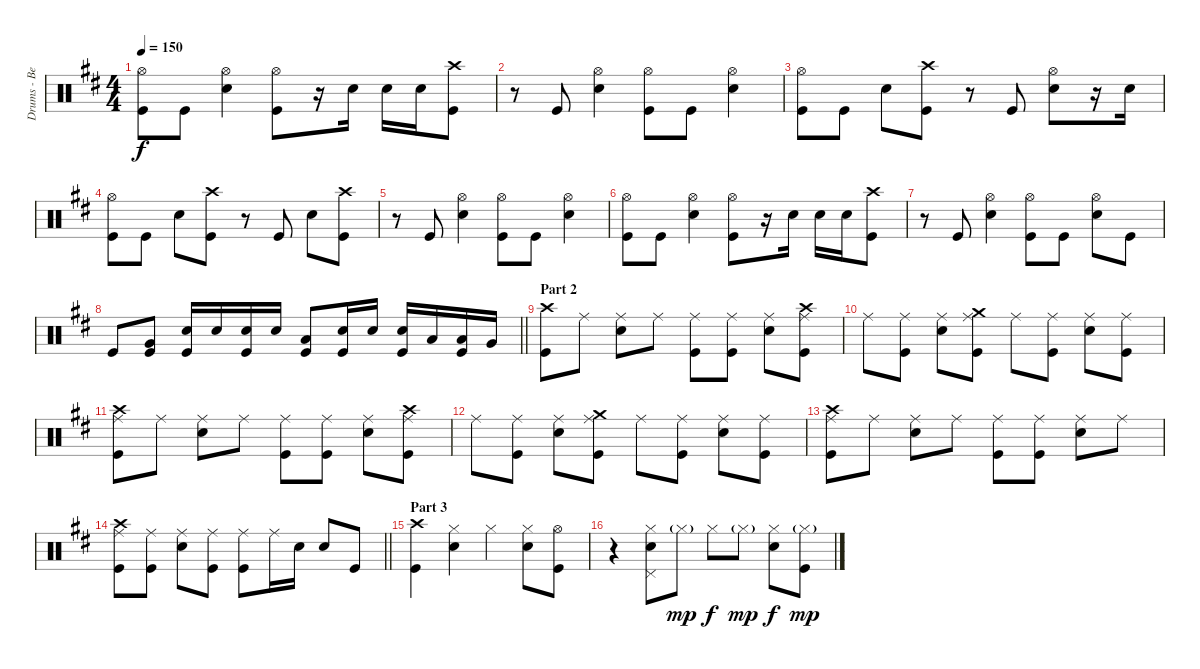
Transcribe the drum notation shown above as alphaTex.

\track ("Drums - Ben Johnston" "Drums - Be") {instrument percussion}
\staff {score}
\articulation defaults
\ts (4 4)
\tempo 150
\clef neutral
\ks d
("Hi-Hat (open)" "Kick (hit)").8{dy f} "Kick (hit)".8 ("Hi-Hat (open)" "Snare (hit) 2").4 ("Hi-Hat (open)" "Kick (hit)").8 r.16 "Snare (hit) 2".16 "Snare (hit) 2".16 "Snare (hit) 2".16 ("Crash high (hit)" "Kick (hit)").8 |
r.8 "Kick (hit)".8 ("Hi-Hat (open)" "Snare (hit) 2").4 ("Hi-Hat (open)" "Kick (hit)").8 "Kick (hit)".8 ("Hi-Hat (open)" "Snare (hit) 2").4 |
("Hi-Hat (open)" "Kick (hit)").8 "Kick (hit)".8 "Snare (hit) 2".8 ("Crash high (hit)" "Kick (hit)").8 r.8 "Kick (hit)".8 ("Hi-Hat (open)" "Snare (hit) 2").8 r.16 "Snare (hit) 2".16 |
("Hi-Hat (open)" "Kick (hit)").8 "Kick (hit)".8 "Snare (hit) 2".8 ("Crash high (hit)" "Kick (hit)").8 r.8 "Kick (hit)".8 "Snare (hit) 2".8 ("Crash high (hit)" "Kick (hit)").8 |
r.8 "Kick (hit)".8 ("Hi-Hat (open)" "Snare (hit) 2").4 ("Hi-Hat (open)" "Kick (hit)").8 "Kick (hit)".8 ("Hi-Hat (open)" "Snare (hit) 2").4 |
("Hi-Hat (open)" "Kick (hit)").8 "Kick (hit)".8 ("Hi-Hat (open)" "Snare (hit) 2").4 ("Hi-Hat (open)" "Kick (hit)").8 r.16 "Snare (hit) 2".16 "Snare (hit) 2".16 "Snare (hit) 2".16 ("Crash high (hit)" "Kick (hit)").8 |
r.8 "Kick (hit)".8 ("Hi-Hat (open)" "Snare (hit) 2").4 ("Hi-Hat (open)" "Kick (hit)").8 "Kick (hit)".8 ("Hi-Hat (open)" "Snare (hit) 2").8 "Kick (hit)".8 |
\barLineRight lightlight "Kick (hit)".8
("Very Low Tom (hit)" "Kick (hit)").8 ("Snare (hit) 2" "Kick (hit)").16 "Snare (hit) 2".16 ("Snare (hit) 2" "Kick (hit)").16 "Snare (hit) 2".16 ("Low Tom (hit)" "Kick (hit)").8 ("Snare (hit) 2" "Kick (hit)").16 "Snare (hit) 2".16 ("Snare (hit) 2" "Kick (hit)").16 "Low Tom (hit)".16 ("Low Tom (hit)" "Kick (hit)").16 "Very Low Tom (hit)".16 |
\section ("" "Part 2")
("Crash high (hit)" "Kick (hit)").8 "Ride (middle)".8 ("Ride (middle)" "Snare (hit) 2").8 "Ride (middle)".8 ("Ride (middle)" "Kick (hit)").8 ("Ride (middle)" "Kick (hit)").8 ("Ride (middle)" "Snare (hit) 2").8 ("Ride (middle)" "Crash high (hit)" "Kick (hit)").8 |
"Ride (middle)".8 ("Ride (middle)" "Kick (hit)").8 ("Ride (middle)" "Snare (hit) 2").8 ("Ride (middle)" "Crash medium (hit)" "Kick (hit)").8 "Ride (middle)".8 ("Ride (middle)" "Kick (hit)").8 ("Ride (middle)" "Snare (hit) 2").8 ("Ride (middle)" "Kick (hit)").8 |
("Ride (middle)" "Crash high (hit)" "Kick (hit)").8 "Ride (middle)".8 ("Ride (middle)" "Snare (hit) 2").8 "Ride (middle)".8 ("Ride (middle)" "Kick (hit)").8 ("Ride (middle)" "Kick (hit)").8 ("Ride (middle)" "Snare (hit) 2").8 ("Ride (middle)" "Crash high (hit)" "Kick (hit)").8 |
"Ride (middle)".8 ("Ride (middle)" "Kick (hit)").8 ("Ride (middle)" "Snare (hit) 2").8 ("Ride (middle)" "Crash medium (hit)" "Kick (hit)").8 "Ride (middle)".8 ("Ride (middle)" "Kick (hit)").8 ("Ride (middle)" "Snare (hit) 2").8 ("Ride (middle)" "Kick (hit)").8 |
("Ride (middle)" "Crash high (hit)" "Kick (hit)").8 "Ride (middle)".8 ("Ride (middle)" "Snare (hit) 2").8 "Ride (middle)".8 ("Ride (middle)" "Kick (hit)").8 ("Ride (middle)" "Kick (hit)").8 ("Ride (middle)" "Snare (hit) 2").8 "Ride (middle)".8 |
\barLineRight lightlight
("Ride (middle)" "Crash high (hit)" "Kick (hit)").8 ("Ride (middle)" "Kick (hit)").8 ("Ride (middle)" "Snare (hit) 2").8 ("Ride (middle)" "Kick (hit)").8 ("Ride (middle)" "Kick (hit)").8 "Ride (middle)".16 "Snare (hit) 2".16 "Snare (hit) 2".8 "Kick (hit)".8 |
\section ("" "Part 3")
("Crash high (hit)" "Kick (hit)").4 ("Hi-Hat (closed)" "Snare (hit) 2").4 "Hi-Hat (closed)".4 ("Hi-Hat (closed)" "Snare (hit) 2").8 ("Hi-Hat (open)" "Kick (hit)").8 |
r.4 ("Hi-Hat (closed)" "Pedal Hi-Hat (hit)" "Snare (hit) 2").8 "Hi-Hat (closed)"{g}.8{dy mp} "Hi-Hat (closed)".8{dy f} "Hi-Hat (closed)"{g}.8{dy mp} ("Hi-Hat (closed)" "Snare (hit) 2").8{dy f} ("Hi-Hat (closed)"{g} "Kick (hit)").8{dy mp}
